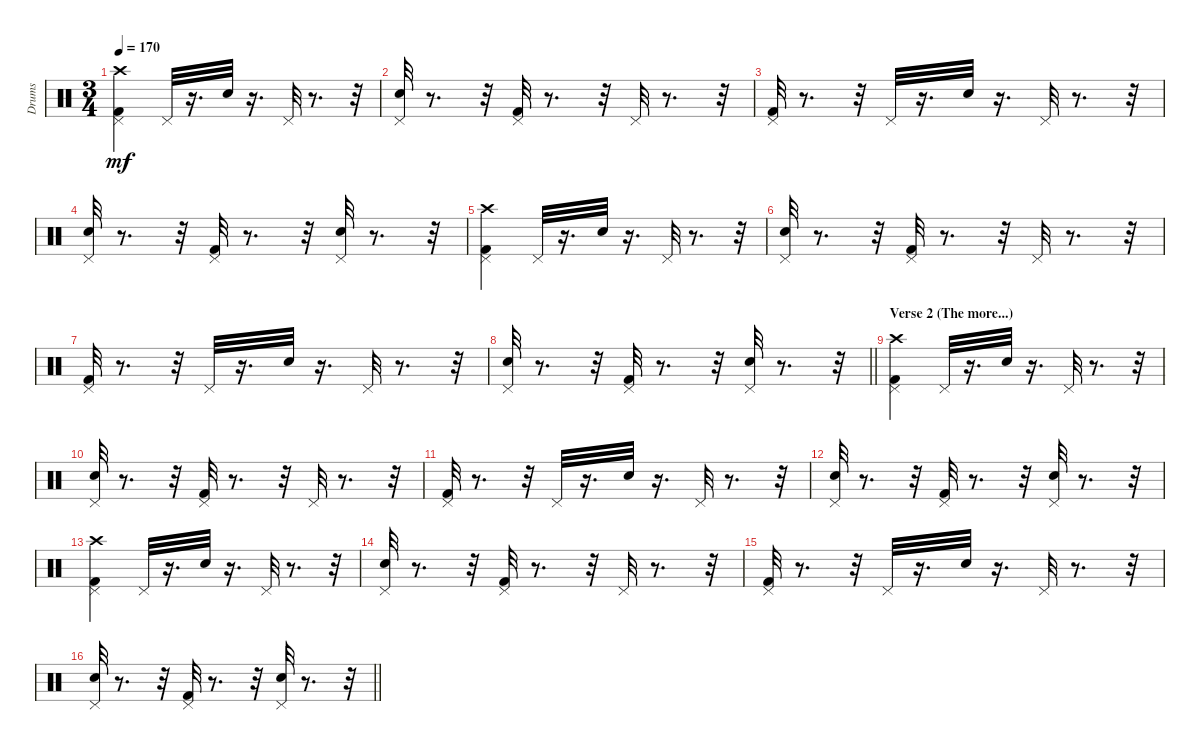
\track ("Drums" "Drums") {instrument percussion}
\staff {score}
\articulation defaults
\ts (3 4)
\tempo 170
\clef neutral
\ks c
("Kick (hit) 2" "Pedal Hi-Hat (hit)" "Crash high (hit)").4{dy mf} "Pedal Hi-Hat (hit)".32 r.16{d} "Snare (hit) 2".32 r.16{d} "Pedal Hi-Hat (hit)".32 r.8{d} r.32 |
("Snare (hit) 2" "Pedal Hi-Hat (hit)").32 r.8{d} r.32 ("Kick (hit) 2" "Pedal Hi-Hat (hit)").32 r.8{d} r.32 "Pedal Hi-Hat (hit)".32 r.8{d} r.32 |
("Kick (hit) 2" "Pedal Hi-Hat (hit)").32 r.8{d} r.32 "Pedal Hi-Hat (hit)".32 r.16{d} "Snare (hit) 2".32 r.16{d} "Pedal Hi-Hat (hit)".32 r.8{d} r.32 |
("Snare (hit) 2" "Pedal Hi-Hat (hit)").32 r.8{d} r.32 ("Kick (hit) 2" "Pedal Hi-Hat (hit)").32 r.8{d} r.32 ("Snare (hit) 2" "Pedal Hi-Hat (hit)").32 r.8{d} r.32 |
("Kick (hit) 2" "Pedal Hi-Hat (hit)" "Crash high (hit)").4 "Pedal Hi-Hat (hit)".32 r.16{d} "Snare (hit) 2".32 r.16{d} "Pedal Hi-Hat (hit)".32 r.8{d} r.32 |
("Snare (hit) 2" "Pedal Hi-Hat (hit)").32 r.8{d} r.32 ("Kick (hit) 2" "Pedal Hi-Hat (hit)").32 r.8{d} r.32 "Pedal Hi-Hat (hit)".32 r.8{d} r.32 |
("Kick (hit) 2" "Pedal Hi-Hat (hit)").32 r.8{d} r.32 "Pedal Hi-Hat (hit)".32 r.16{d} "Snare (hit) 2".32 r.16{d} "Pedal Hi-Hat (hit)".32 r.8{d} r.32 |
\barLineRight lightlight
("Snare (hit) 2" "Pedal Hi-Hat (hit)").32 r.8{d} r.32 ("Kick (hit) 2" "Pedal Hi-Hat (hit)").32 r.8{d} r.32 ("Snare (hit) 2" "Pedal Hi-Hat (hit)").32 r.8{d} r.32 |
\section ("" "Verse 2 (The more...)")
("Kick (hit) 2" "Pedal Hi-Hat (hit)" "Crash high (hit)").4 "Pedal Hi-Hat (hit)".32 r.16{d} "Snare (hit) 2".32 r.16{d} "Pedal Hi-Hat (hit)".32 r.8{d} r.32 |
("Snare (hit) 2" "Pedal Hi-Hat (hit)").32 r.8{d} r.32 ("Kick (hit) 2" "Pedal Hi-Hat (hit)").32 r.8{d} r.32 "Pedal Hi-Hat (hit)".32 r.8{d} r.32 |
("Kick (hit) 2" "Pedal Hi-Hat (hit)").32 r.8{d} r.32 "Pedal Hi-Hat (hit)".32 r.16{d} "Snare (hit) 2".32 r.16{d} "Pedal Hi-Hat (hit)".32 r.8{d} r.32 |
("Snare (hit) 2" "Pedal Hi-Hat (hit)").32 r.8{d} r.32 ("Kick (hit) 2" "Pedal Hi-Hat (hit)").32 r.8{d} r.32 ("Snare (hit) 2" "Pedal Hi-Hat (hit)").32 r.8{d} r.32 |
("Kick (hit) 2" "Pedal Hi-Hat (hit)" "Crash high (hit)").4 "Pedal Hi-Hat (hit)".32 r.16{d} "Snare (hit) 2".32 r.16{d} "Pedal Hi-Hat (hit)".32 r.8{d} r.32 |
("Snare (hit) 2" "Pedal Hi-Hat (hit)").32 r.8{d} r.32 ("Kick (hit) 2" "Pedal Hi-Hat (hit)").32 r.8{d} r.32 "Pedal Hi-Hat (hit)".32 r.8{d} r.32 |
("Kick (hit) 2" "Pedal Hi-Hat (hit)").32 r.8{d} r.32 "Pedal Hi-Hat (hit)".32 r.16{d} "Snare (hit) 2".32 r.16{d} "Pedal Hi-Hat (hit)".32 r.8{d} r.32 |
\barLineRight lightlight
("Snare (hit) 2" "Pedal Hi-Hat (hit)").32 r.8{d} r.32 ("Kick (hit) 2" "Pedal Hi-Hat (hit)").32 r.8{d} r.32 ("Snare (hit) 2" "Pedal Hi-Hat (hit)").32 r.8{d} r.32
